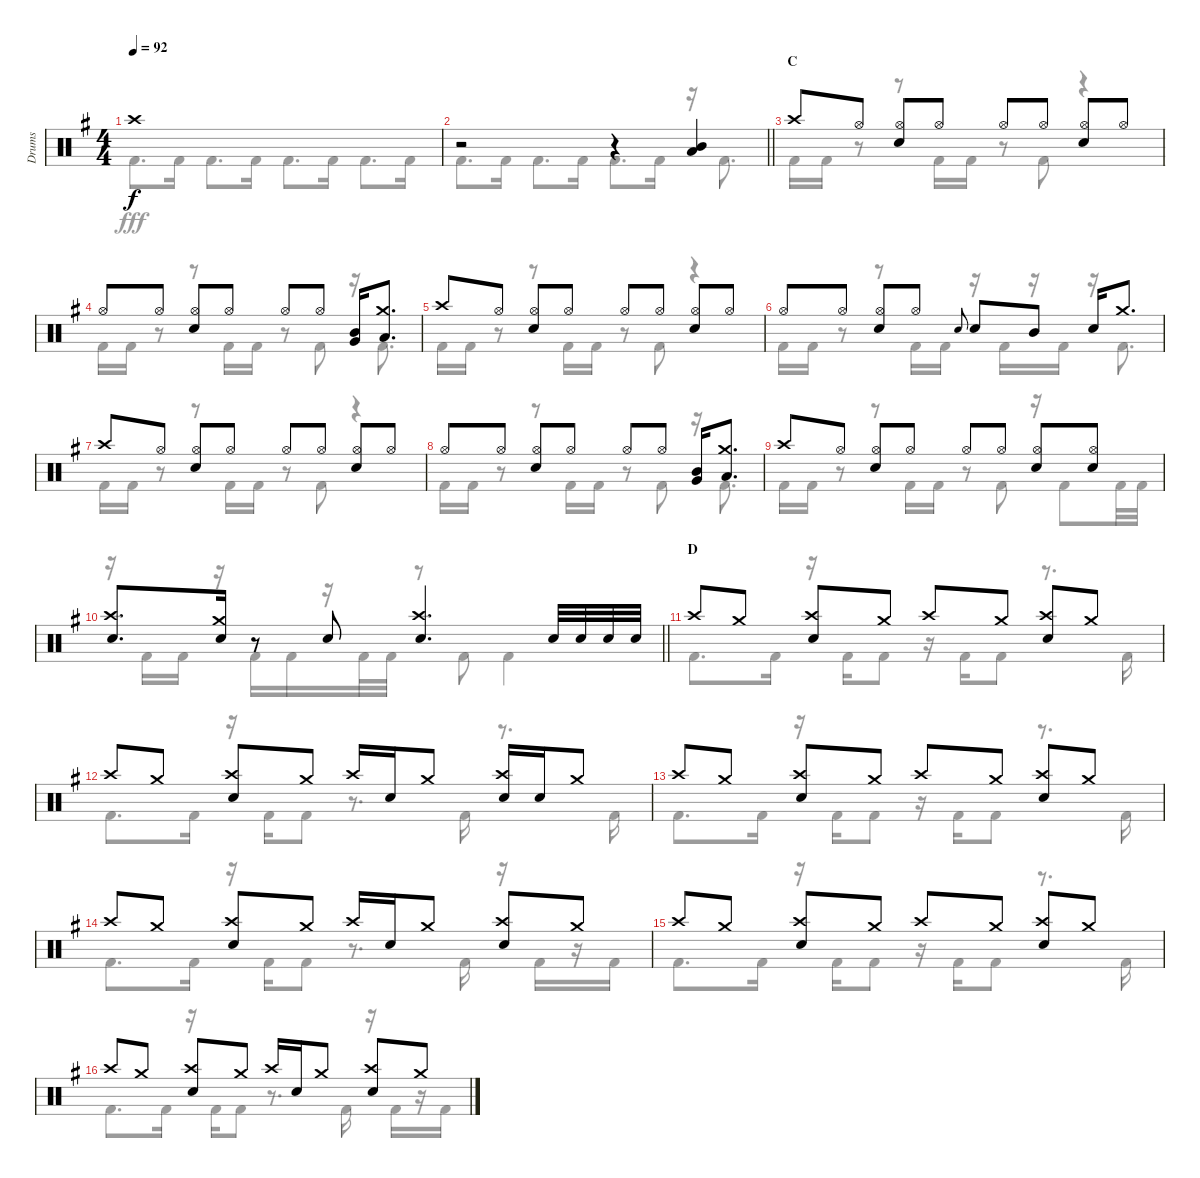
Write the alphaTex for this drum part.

\track ("Drums" "Drums") {instrument percussion}
\staff {score}
\articulation defaults
\voice
\ts (4 4)
\tempo 92
\clef neutral
\ks eminor "Crash high (hit)".1{dy f}
|
\barLineRight lightlight
r.2 r.4 ("Mid Tom (hit)" "Low Tom (hit)").4 |
\section ("" "C")
"Crash high (hit)".8 "Hi-Hat (open)".8 ("Hi-Hat (open)" "Snare (hit) 2").8 "Hi-Hat (open)".8 "Hi-Hat (open)".8 "Hi-Hat (open)".8 ("Hi-Hat (open)" "Snare (hit) 2").8 "Hi-Hat (open)".8 |
"Hi-Hat (open)".8 "Hi-Hat (open)".8 ("Hi-Hat (open)" "Snare (hit) 2").8 "Hi-Hat (open)".8 "Hi-Hat (open)".8 "Hi-Hat (open)".8 ("Mid Tom (hit)" "Very Low Tom (hit)").16 ("Crash medium (hit)" "Low Tom (hit)").8{d} |
"Crash high (hit)".8 "Hi-Hat (open)".8 ("Hi-Hat (open)" "Snare (hit) 2").8 "Hi-Hat (open)".8 "Hi-Hat (open)".8 "Hi-Hat (open)".8 ("Hi-Hat (open)" "Snare (hit) 2").8 "Hi-Hat (open)".8 |
"Hi-Hat (open)".8 "Hi-Hat (open)".8 ("Hi-Hat (open)" "Snare (hit) 2").8 "Hi-Hat (open)".8 "Snare (hit) 2".8{gr onbeat} "Snare (hit) 2".8 "Mid Tom (hit)".8 "Snare (hit) 2".16 "Crash medium (hit)".8{d} |
"Crash high (hit)".8 "Hi-Hat (open)".8 ("Hi-Hat (open)" "Snare (hit) 2").8 "Hi-Hat (open)".8 "Hi-Hat (open)".8 "Hi-Hat (open)".8 ("Hi-Hat (open)" "Snare (hit) 2").8 "Hi-Hat (open)".8 |
"Hi-Hat (open)".8 "Hi-Hat (open)".8 ("Hi-Hat (open)" "Snare (hit) 2").8 "Hi-Hat (open)".8 "Hi-Hat (open)".8 "Hi-Hat (open)".8 ("Mid Tom (hit)" "Very Low Tom (hit)").16 ("Crash medium (hit)" "Low Tom (hit)").8{d} |
"Crash high (hit)".8 "Hi-Hat (open)".8 ("Hi-Hat (open)" "Snare (hit) 2").8 "Hi-Hat (open)".8 "Hi-Hat (open)".8 "Hi-Hat (open)".8 ("Hi-Hat (open)" "Snare (hit) 2").8 ("Hi-Hat (open)" "Snare (hit) 2").8 |
\barLineRight lightlight
("Crash high (hit)" "Snare (hit) 2").8{d} ("Crash medium (hit)" "Snare (hit) 2").16 r.8 "Snare (hit) 2".8 ("Crash high (hit)" "Snare (hit) 2").4{d} "Snare (hit) 2".32 "Snare (hit) 2".32 "Snare (hit) 2".32 "Snare (hit) 2".32 |
\section ("" "D")
"Crash high (hit)".8 "Crash medium (hit)".8 ("Crash high (hit)" "Snare (hit) 2").8 "Crash medium (hit)".8 "Crash high (hit)".8 "Crash medium (hit)".8 ("Crash high (hit)" "Snare (hit) 2").8 "Crash medium (hit)".8 |
"Crash high (hit)".8 "Crash medium (hit)".8 ("Crash high (hit)" "Snare (hit) 2").8 "Crash medium (hit)".8 "Crash high (hit)".16 "Snare (hit) 2".16 "Crash medium (hit)".8 ("Crash high (hit)" "Snare (hit) 2").16 "Snare (hit) 2".16 "Crash medium (hit)".8 |
"Crash high (hit)".8 "Crash medium (hit)".8 ("Crash high (hit)" "Snare (hit) 2").8 "Crash medium (hit)".8 "Crash high (hit)".8 "Crash medium (hit)".8 ("Crash high (hit)" "Snare (hit) 2").8 "Crash medium (hit)".8 |
"Crash high (hit)".8 "Crash medium (hit)".8 ("Crash high (hit)" "Snare (hit) 2").8 "Crash medium (hit)".8 "Crash high (hit)".16 "Snare (hit) 2".16 "Crash medium (hit)".8 ("Crash high (hit)" "Snare (hit) 2").8 "Crash medium (hit)".8 |
"Crash high (hit)".8 "Crash medium (hit)".8 ("Crash high (hit)" "Snare (hit) 2").8 "Crash medium (hit)".8 "Crash high (hit)".8 "Crash medium (hit)".8 ("Crash high (hit)" "Snare (hit) 2").8 "Crash medium (hit)".8 |
"Crash high (hit)".8 "Crash medium (hit)".8 ("Crash high (hit)" "Snare (hit) 2").8 "Crash medium (hit)".8 "Crash high (hit)".16 "Snare (hit) 2".16 "Crash medium (hit)".8 ("Crash high (hit)" "Snare (hit) 2").8 "Crash medium (hit)".8
\voice
\clef neutral
\ottava regular
\simile none
\ks eminor "Kick (hit) 2".8{d dy fff} "Kick (hit) 2".16 "Kick (hit) 2".8{d} "Kick (hit) 2".16 "Kick (hit) 2".8{d} "Kick (hit) 2".16 "Kick (hit) 2".8{d} "Kick (hit) 2".16
|
\barLineRight lightlight "Kick (hit) 2".8{d} "Kick (hit) 2".16 "Kick (hit) 2".8{d} "Kick (hit) 2".16 "Kick (hit) 2".8{d} "Kick (hit) 2".16
r.16 "Kick (hit) 2".8{d} |
"Kick (hit) 2".16 "Kick (hit) 2".16 r.8 r.8 "Kick (hit) 2".16 "Kick (hit) 2".16 r.8 "Kick (hit) 2".8 r.4 |
"Kick (hit) 2".16 "Kick (hit) 2".16 r.8 r.8 "Kick (hit) 2".16 "Kick (hit) 2".16 r.8 "Kick (hit) 2".8 r.16 "Kick (hit) 2".8{d} |
"Kick (hit) 2".16 "Kick (hit) 2".16 r.8 r.8 "Kick (hit) 2".16 "Kick (hit) 2".16 r.8 "Kick (hit) 2".8 r.4 |
"Kick (hit) 2".16 "Kick (hit) 2".16 r.8 r.8 "Kick (hit) 2".16 "Kick (hit) 2".16 r.16 "Kick (hit) 2".16 r.16 "Kick (hit) 2".16 r.16 "Kick (hit) 2".8{d} |
"Kick (hit) 2".16 "Kick (hit) 2".16 r.8 r.8 "Kick (hit) 2".16 "Kick (hit) 2".16 r.8 "Kick (hit) 2".8 r.4 |
"Kick (hit) 2".16 "Kick (hit) 2".16 r.8 r.8 "Kick (hit) 2".16 "Kick (hit) 2".16 r.8 "Kick (hit) 2".8 r.16 "Kick (hit) 2".8{d} |
"Kick (hit) 2".16 "Kick (hit) 2".16 r.8 r.8 "Kick (hit) 2".16 "Kick (hit) 2".16 r.8 "Kick (hit) 2".8 r.16 "Kick (hit) 2".8 "Kick (hit) 2".32 "Kick (hit) 2".32 |
\barLineRight lightlight
r.16 "Kick (hit) 2".16 "Kick (hit) 2".16 r.16 "Kick (hit) 2".16 "Kick (hit) 2".16 r.16 "Kick (hit) 2".32 "Kick (hit) 2".32 r.8 "Kick (hit) 2".8 "Kick (hit) 2".4 |
"Kick (hit) 2".8{d} "Kick (hit) 2".16 r.16 "Kick (hit) 2".16 "Kick (hit) 2".8 r.16 "Kick (hit) 2".16 "Kick (hit) 2".8 r.8{d} "Kick (hit) 2".16 |
"Kick (hit) 2".8{d} "Kick (hit) 2".16 r.16 "Kick (hit) 2".16 "Kick (hit) 2".8 r.8{d} "Kick (hit) 2".16 r.8{d} "Kick (hit) 2".16 |
"Kick (hit) 2".8{d} "Kick (hit) 2".16 r.16 "Kick (hit) 2".16 "Kick (hit) 2".8 r.16 "Kick (hit) 2".16 "Kick (hit) 2".8 r.8{d} "Kick (hit) 2".16 |
"Kick (hit) 2".8{d} "Kick (hit) 2".16 r.16 "Kick (hit) 2".16 "Kick (hit) 2".8 r.8{d} "Kick (hit) 2".16 r.16 "Kick (hit) 2".16 r.16 "Kick (hit) 2".16 |
"Kick (hit) 2".8{d} "Kick (hit) 2".16 r.16 "Kick (hit) 2".16 "Kick (hit) 2".8 r.16 "Kick (hit) 2".16 "Kick (hit) 2".8 r.8{d} "Kick (hit) 2".16 |
"Kick (hit) 2".8{d} "Kick (hit) 2".16 r.16 "Kick (hit) 2".16 "Kick (hit) 2".8 r.8{d} "Kick (hit) 2".16 r.16 "Kick (hit) 2".16 r.16 "Kick (hit) 2".16
